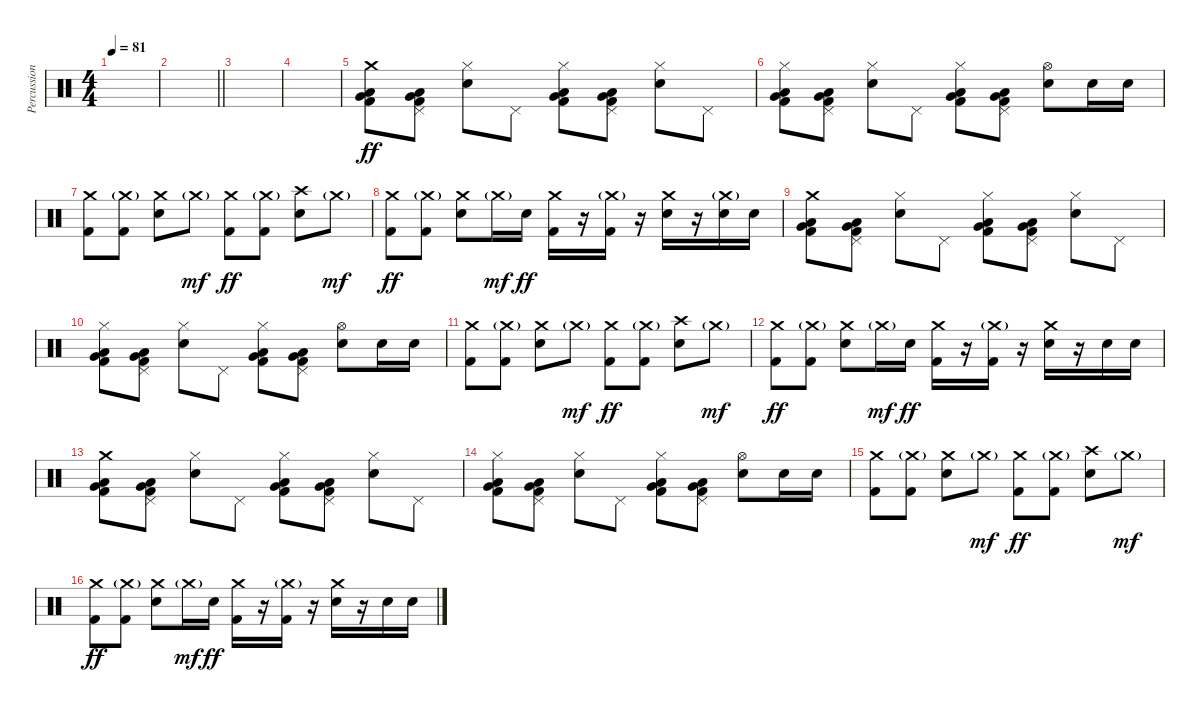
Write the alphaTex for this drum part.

\track ("Percussions" "Percussion") {instrument percussion bank 16}
\staff {score}
\articulation defaults
\ts (4 4)
\tempo 81
\clef neutral
\ks c
|
\barLineRight lightlight
|
|
|
("Crash medium (hit)" "Low Tom (hit)" "Very Low Tom (hit)" "Kick (hit) 2").8{dy ff} ("Pedal Hi-Hat (hit)" "Low Tom (hit)" "Very Low Tom (hit)" "Kick (hit) 2").8 ("Hi-Hat (closed)" "Electric Snare (hit)").8 "Pedal Hi-Hat (hit)".8 ("Hi-Hat (closed)" "Low Tom (hit)" "Very Low Tom (hit)" "Kick (hit) 2").8 ("Pedal Hi-Hat (hit)" "Low Tom (hit)" "Very Low Tom (hit)" "Kick (hit) 2").8 ("Hi-Hat (closed)" "Electric Snare (hit)").8 "Pedal Hi-Hat (hit)".8 |
("Hi-Hat (closed)" "Low Tom (hit)" "Very Low Tom (hit)" "Kick (hit) 2").8 ("Pedal Hi-Hat (hit)" "Low Tom (hit)" "Very Low Tom (hit)" "Kick (hit) 2").8 ("Hi-Hat (closed)" "Electric Snare (hit)").8 "Pedal Hi-Hat (hit)".8 ("Hi-Hat (closed)" "Low Tom (hit)" "Very Low Tom (hit)" "Kick (hit) 2").8 ("Pedal Hi-Hat (hit)" "Low Tom (hit)" "Very Low Tom (hit)" "Kick (hit) 2").8 ("Hi-Hat (open)" "Electric Snare (hit)").8 "Electric Snare (hit)".16 "Electric Snare (hit)".16 |
("Crash medium (hit)" "Kick (hit) 2").8 ("Crash medium (hit)"{g} "Kick (hit) 2").8 ("Crash medium (hit)" "Electric Snare (hit)").8 "Crash medium (hit)"{g}.8{dy mf} ("Crash medium (hit)" "Kick (hit) 2").8{dy ff} ("Crash medium (hit)"{g} "Kick (hit) 2").8 ("Crash high (hit)" "Electric Snare (hit)").8 "Crash medium (hit)"{g}.8{dy mf} |
("Crash medium (hit)" "Kick (hit) 2").8{dy ff} ("Crash medium (hit)"{g} "Kick (hit) 2").8 ("Crash medium (hit)" "Electric Snare (hit)").8 "Crash medium (hit)"{g}.16{dy mf} "Electric Snare (hit)".16{dy ff} ("Crash medium (hit)" "Kick (hit) 2").16 r.16 ("Crash medium (hit)"{g} "Kick (hit) 2").16 r.16 ("Crash medium (hit)" "Electric Snare (hit)").16 r.16 ("Crash medium (hit)"{g} "Electric Snare (hit)").16 "Electric Snare (hit)".16 |
("Crash medium (hit)" "Low Tom (hit)" "Very Low Tom (hit)" "Kick (hit) 2").8 ("Pedal Hi-Hat (hit)" "Low Tom (hit)" "Very Low Tom (hit)" "Kick (hit) 2").8 ("Hi-Hat (closed)" "Electric Snare (hit)").8 "Pedal Hi-Hat (hit)".8 ("Hi-Hat (closed)" "Low Tom (hit)" "Very Low Tom (hit)" "Kick (hit) 2").8 ("Pedal Hi-Hat (hit)" "Low Tom (hit)" "Very Low Tom (hit)" "Kick (hit) 2").8 ("Hi-Hat (closed)" "Electric Snare (hit)").8 "Pedal Hi-Hat (hit)".8 |
("Hi-Hat (closed)" "Low Tom (hit)" "Very Low Tom (hit)" "Kick (hit) 2").8 ("Pedal Hi-Hat (hit)" "Low Tom (hit)" "Very Low Tom (hit)" "Kick (hit) 2").8 ("Hi-Hat (closed)" "Electric Snare (hit)").8 "Pedal Hi-Hat (hit)".8 ("Hi-Hat (closed)" "Low Tom (hit)" "Very Low Tom (hit)" "Kick (hit) 2").8 ("Pedal Hi-Hat (hit)" "Low Tom (hit)" "Very Low Tom (hit)" "Kick (hit) 2").8 ("Hi-Hat (open)" "Electric Snare (hit)").8 "Electric Snare (hit)".16 "Electric Snare (hit)".16 |
("Crash medium (hit)" "Kick (hit) 2").8 ("Crash medium (hit)"{g} "Kick (hit) 2").8 ("Crash medium (hit)" "Electric Snare (hit)").8 "Crash medium (hit)"{g}.8{dy mf} ("Crash medium (hit)" "Kick (hit) 2").8{dy ff} ("Crash medium (hit)"{g} "Kick (hit) 2").8 ("Crash high (hit)" "Electric Snare (hit)").8 "Crash medium (hit)"{g}.8{dy mf} |
("Crash medium (hit)" "Kick (hit) 2").8{dy ff} ("Crash medium (hit)"{g} "Kick (hit) 2").8 ("Crash medium (hit)" "Electric Snare (hit)").8 "Crash medium (hit)"{g}.16{dy mf} "Electric Snare (hit)".16{dy ff} ("Crash medium (hit)" "Kick (hit) 2").16 r.16 ("Crash medium (hit)"{g} "Kick (hit) 2").16 r.16 ("Crash medium (hit)" "Electric Snare (hit)").16 r.16 "Electric Snare (hit)".16 "Electric Snare (hit)".16 |
("Crash medium (hit)" "Low Tom (hit)" "Very Low Tom (hit)" "Kick (hit) 2").8 ("Pedal Hi-Hat (hit)" "Low Tom (hit)" "Very Low Tom (hit)" "Kick (hit) 2").8 ("Hi-Hat (closed)" "Electric Snare (hit)").8 "Pedal Hi-Hat (hit)".8 ("Hi-Hat (closed)" "Low Tom (hit)" "Very Low Tom (hit)" "Kick (hit) 2").8 ("Pedal Hi-Hat (hit)" "Low Tom (hit)" "Very Low Tom (hit)" "Kick (hit) 2").8 ("Hi-Hat (closed)" "Electric Snare (hit)").8 "Pedal Hi-Hat (hit)".8 |
("Hi-Hat (closed)" "Low Tom (hit)" "Very Low Tom (hit)" "Kick (hit) 2").8 ("Pedal Hi-Hat (hit)" "Low Tom (hit)" "Very Low Tom (hit)" "Kick (hit) 2").8 ("Hi-Hat (closed)" "Electric Snare (hit)").8 "Pedal Hi-Hat (hit)".8 ("Hi-Hat (closed)" "Low Tom (hit)" "Very Low Tom (hit)" "Kick (hit) 2").8 ("Pedal Hi-Hat (hit)" "Low Tom (hit)" "Very Low Tom (hit)" "Kick (hit) 2").8 ("Hi-Hat (open)" "Electric Snare (hit)").8 "Electric Snare (hit)".16 "Electric Snare (hit)".16 |
("Crash medium (hit)" "Kick (hit) 2").8 ("Crash medium (hit)"{g} "Kick (hit) 2").8 ("Crash medium (hit)" "Electric Snare (hit)").8 "Crash medium (hit)"{g}.8{dy mf} ("Crash medium (hit)" "Kick (hit) 2").8{dy ff} ("Crash medium (hit)"{g} "Kick (hit) 2").8 ("Crash high (hit)" "Electric Snare (hit)").8 "Crash medium (hit)"{g}.8{dy mf} |
("Crash medium (hit)" "Kick (hit) 2").8{dy ff} ("Crash medium (hit)"{g} "Kick (hit) 2").8 ("Crash medium (hit)" "Electric Snare (hit)").8 "Crash medium (hit)"{g}.16{dy mf} "Electric Snare (hit)".16{dy ff} ("Crash medium (hit)" "Kick (hit) 2").16 r.16 ("Crash medium (hit)"{g} "Kick (hit) 2").16 r.16 ("Crash medium (hit)" "Electric Snare (hit)").16 r.16 "Electric Snare (hit)".16 "Electric Snare (hit)".16
